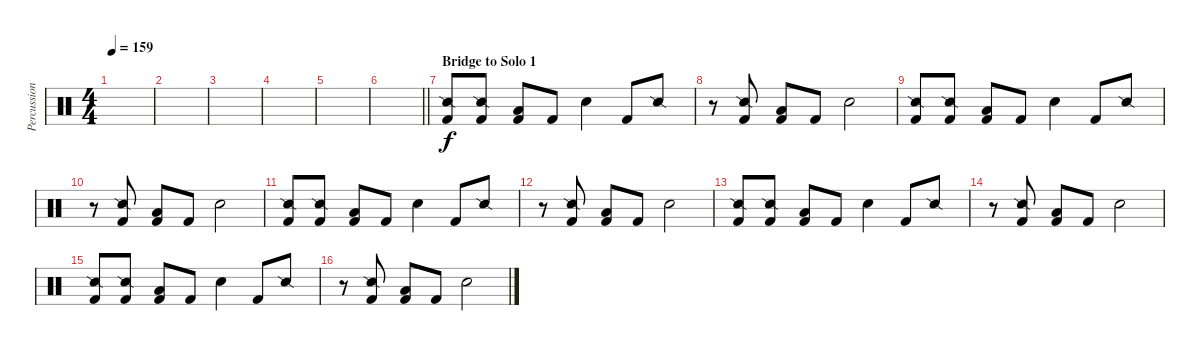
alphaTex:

\track ("Percussion" "Percussion") {instrument percussion}
\staff {score}
\articulation defaults
\ts (4 4)
\tempo 159
\clef neutral
\ks c
|
|
|
|
|
\barLineRight lightlight
|
\section ("" "Bridge to Solo 1")
("Kick (hit) 2" "Snare (side stick) 2").8 ("Kick (hit) 2" "Snare (side stick) 2").8 ("Kick (hit) 2" "Low Tom (hit)").8 "Kick (hit) 2".8 "Snare (hit) 2".4 "Kick (hit) 2".8 "Snare (side stick) 2".8 |
r.8 ("Kick (hit) 2" "Snare (side stick) 2").8 ("Kick (hit) 2" "Low Tom (hit)").8 "Kick (hit) 2".8 "Snare (hit) 2".2 |
("Kick (hit) 2" "Snare (side stick) 2").8 ("Kick (hit) 2" "Snare (side stick) 2").8 ("Kick (hit) 2" "Low Tom (hit)").8 "Kick (hit) 2".8 "Snare (hit) 2".4 "Kick (hit) 2".8 "Snare (side stick) 2".8 |
r.8 ("Kick (hit) 2" "Snare (side stick) 2").8 ("Kick (hit) 2" "Low Tom (hit)").8 "Kick (hit) 2".8 "Snare (hit) 2".2 |
("Kick (hit) 2" "Snare (side stick) 2").8 ("Kick (hit) 2" "Snare (side stick) 2").8 ("Kick (hit) 2" "Low Tom (hit)").8 "Kick (hit) 2".8 "Snare (hit) 2".4 "Kick (hit) 2".8 "Snare (side stick) 2".8 |
r.8 ("Kick (hit) 2" "Snare (side stick) 2").8 ("Kick (hit) 2" "Low Tom (hit)").8 "Kick (hit) 2".8 "Snare (hit) 2".2 |
("Kick (hit) 2" "Snare (side stick) 2").8 ("Kick (hit) 2" "Snare (side stick) 2").8 ("Kick (hit) 2" "Low Tom (hit)").8 "Kick (hit) 2".8 "Snare (hit) 2".4 "Kick (hit) 2".8 "Snare (side stick) 2".8 |
r.8 ("Kick (hit) 2" "Snare (side stick) 2").8 ("Kick (hit) 2" "Low Tom (hit)").8 "Kick (hit) 2".8 "Snare (hit) 2".2 |
("Kick (hit) 2" "Snare (side stick) 2").8 ("Kick (hit) 2" "Snare (side stick) 2").8 ("Kick (hit) 2" "Low Tom (hit)").8 "Kick (hit) 2".8 "Snare (hit) 2".4 "Kick (hit) 2".8 "Snare (side stick) 2".8 |
r.8 ("Kick (hit) 2" "Snare (side stick) 2").8 ("Kick (hit) 2" "Low Tom (hit)").8 "Kick (hit) 2".8 "Snare (hit) 2".2
